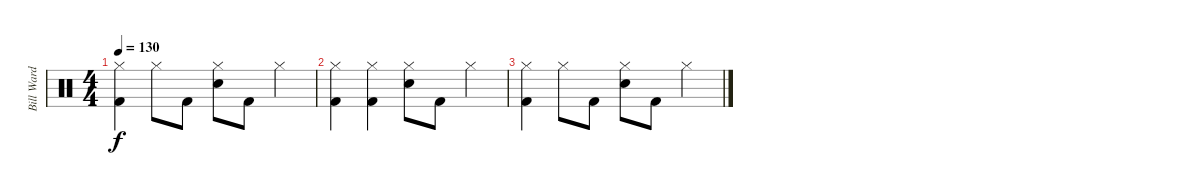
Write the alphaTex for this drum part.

\track ("Bill Ward" "Bill Ward") {instrument percussion}
\staff {score}
\articulation defaults
\ts (4 4)
\tempo 130
\clef neutral
\ks c
("Hi-Hat (closed)" "Kick (hit) 2").4{dy f} "Hi-Hat (closed)".8 "Kick (hit) 2".8 ("Hi-Hat (closed)" "Snare (hit) 2").8 "Kick (hit) 2".8 "Hi-Hat (closed)".4 |
("Hi-Hat (closed)" "Kick (hit) 2").4 ("Hi-Hat (closed)" "Kick (hit) 2").4 ("Hi-Hat (closed)" "Snare (hit) 2").8 "Kick (hit) 2".8 "Hi-Hat (closed)".4 |
("Hi-Hat (closed)" "Kick (hit) 2").4 "Hi-Hat (closed)".8 "Kick (hit) 2".8 ("Hi-Hat (closed)" "Snare (hit) 2").8 "Kick (hit) 2".8 "Hi-Hat (closed)".4
